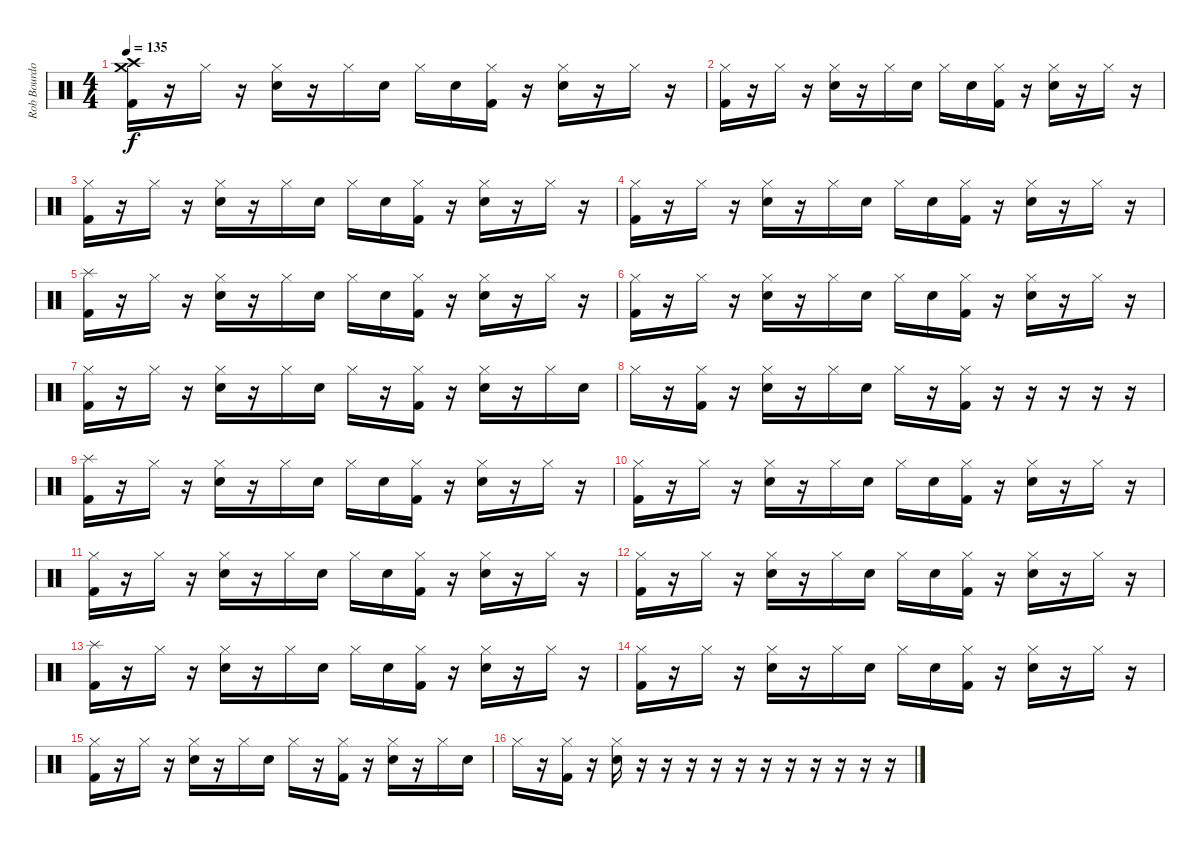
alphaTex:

\track ("Rob Bourdon (Drums)" "Rob Bourdo") {instrument percussion}
\staff {score}
\articulation defaults
\ts (4 4)
\tempo 135
\clef neutral
\ks c
("Crash high (hit)" "Crash medium (hit)" "Kick (hit) 2").16{dy f} r.16 "Hi-Hat (closed)".16 r.16 ("Hi-Hat (closed)" "Electric Snare (hit)").16 r.16 "Hi-Hat (closed)".16 "Electric Snare (hit)".16 "Hi-Hat (closed)".16 "Electric Snare (hit)".16 ("Hi-Hat (closed)" "Kick (hit) 2").16 r.16 ("Hi-Hat (closed)" "Electric Snare (hit)").16 r.16 "Hi-Hat (closed)".16 r.16 |
("Hi-Hat (closed)" "Kick (hit) 2").16 r.16 "Hi-Hat (closed)".16 r.16 ("Hi-Hat (closed)" "Electric Snare (hit)").16 r.16 "Hi-Hat (closed)".16 "Electric Snare (hit)".16 "Hi-Hat (closed)".16 "Electric Snare (hit)".16 ("Hi-Hat (closed)" "Kick (hit) 2").16 r.16 ("Hi-Hat (closed)" "Electric Snare (hit)").16 r.16 "Hi-Hat (closed)".16 r.16 |
("Hi-Hat (closed)" "Kick (hit) 2").16 r.16 "Hi-Hat (closed)".16 r.16 ("Hi-Hat (closed)" "Electric Snare (hit)").16 r.16 "Hi-Hat (closed)".16 "Electric Snare (hit)".16 "Hi-Hat (closed)".16 "Electric Snare (hit)".16 ("Hi-Hat (closed)" "Kick (hit) 2").16 r.16 ("Hi-Hat (closed)" "Electric Snare (hit)").16 r.16 "Hi-Hat (closed)".16 r.16 |
("Hi-Hat (closed)" "Kick (hit) 2").16 r.16 "Hi-Hat (closed)".16 r.16 ("Hi-Hat (closed)" "Electric Snare (hit)").16 r.16 "Hi-Hat (closed)".16 "Electric Snare (hit)".16 "Hi-Hat (closed)".16 "Electric Snare (hit)".16 ("Hi-Hat (closed)" "Kick (hit) 2").16 r.16 ("Hi-Hat (closed)" "Electric Snare (hit)").16 r.16 "Hi-Hat (closed)".16 r.16 |
("Splash (hit)" "Kick (hit) 2").16 r.16 "Hi-Hat (closed)".16 r.16 ("Hi-Hat (closed)" "Electric Snare (hit)").16 r.16 "Hi-Hat (closed)".16 "Electric Snare (hit)".16 "Hi-Hat (closed)".16 "Electric Snare (hit)".16 ("Hi-Hat (closed)" "Kick (hit) 2").16 r.16 ("Hi-Hat (closed)" "Electric Snare (hit)").16 r.16 "Hi-Hat (closed)".16 r.16 |
("Hi-Hat (closed)" "Kick (hit) 2").16 r.16 "Hi-Hat (closed)".16 r.16 ("Hi-Hat (closed)" "Electric Snare (hit)").16 r.16 "Hi-Hat (closed)".16 "Electric Snare (hit)".16 "Hi-Hat (closed)".16 "Electric Snare (hit)".16 ("Hi-Hat (closed)" "Kick (hit) 2").16 r.16 ("Hi-Hat (closed)" "Electric Snare (hit)").16 r.16 "Hi-Hat (closed)".16 r.16 |
("Hi-Hat (closed)" "Kick (hit) 2").16 r.16 "Hi-Hat (closed)".16 r.16 ("Hi-Hat (closed)" "Electric Snare (hit)").16 r.16 "Hi-Hat (closed)".16 "Electric Snare (hit)".16 "Hi-Hat (closed)".16 r.16 ("Hi-Hat (closed)" "Kick (hit) 2").16 r.16 ("Hi-Hat (closed)" "Electric Snare (hit)").16 r.16 "Hi-Hat (closed)".16 "Electric Snare (hit)".16 |
"Hi-Hat (closed)".16 r.16 ("Hi-Hat (closed)" "Kick (hit) 2").16 r.16 ("Hi-Hat (closed)" "Electric Snare (hit)").16 r.16 "Hi-Hat (closed)".16 "Electric Snare (hit)".16 "Hi-Hat (closed)".16 r.16 ("Hi-Hat (closed)" "Kick (hit) 2").16 r.16 r.16 r.16 r.16 r.16 |
("Splash (hit)" "Kick (hit) 2").16 r.16 "Hi-Hat (closed)".16 r.16 ("Hi-Hat (closed)" "Electric Snare (hit)").16 r.16 "Hi-Hat (closed)".16 "Electric Snare (hit)".16 "Hi-Hat (closed)".16 "Electric Snare (hit)".16 ("Hi-Hat (closed)" "Kick (hit) 2").16 r.16 ("Hi-Hat (closed)" "Electric Snare (hit)").16 r.16 "Hi-Hat (closed)".16 r.16 |
("Hi-Hat (closed)" "Kick (hit) 2").16 r.16 "Hi-Hat (closed)".16 r.16 ("Hi-Hat (closed)" "Electric Snare (hit)").16 r.16 "Hi-Hat (closed)".16 "Electric Snare (hit)".16 "Hi-Hat (closed)".16 "Electric Snare (hit)".16 ("Hi-Hat (closed)" "Kick (hit) 2").16 r.16 ("Hi-Hat (closed)" "Electric Snare (hit)").16 r.16 "Hi-Hat (closed)".16 r.16 |
("Hi-Hat (closed)" "Kick (hit) 2").16 r.16 "Hi-Hat (closed)".16 r.16 ("Hi-Hat (closed)" "Electric Snare (hit)").16 r.16 "Hi-Hat (closed)".16 "Electric Snare (hit)".16 "Hi-Hat (closed)".16 "Electric Snare (hit)".16 ("Hi-Hat (closed)" "Kick (hit) 2").16 r.16 ("Hi-Hat (closed)" "Electric Snare (hit)").16 r.16 "Hi-Hat (closed)".16 r.16 |
("Hi-Hat (closed)" "Kick (hit) 2").16 r.16 "Hi-Hat (closed)".16 r.16 ("Hi-Hat (closed)" "Electric Snare (hit)").16 r.16 "Hi-Hat (closed)".16 "Electric Snare (hit)".16 "Hi-Hat (closed)".16 "Electric Snare (hit)".16 ("Hi-Hat (closed)" "Kick (hit) 2").16 r.16 ("Hi-Hat (closed)" "Electric Snare (hit)").16 r.16 "Hi-Hat (closed)".16 r.16 |
("Splash (hit)" "Kick (hit) 2").16 r.16 "Hi-Hat (closed)".16 r.16 ("Hi-Hat (closed)" "Electric Snare (hit)").16 r.16 "Hi-Hat (closed)".16 "Electric Snare (hit)".16 "Hi-Hat (closed)".16 "Electric Snare (hit)".16 ("Hi-Hat (closed)" "Kick (hit) 2").16 r.16 ("Hi-Hat (closed)" "Electric Snare (hit)").16 r.16 "Hi-Hat (closed)".16 r.16 |
("Hi-Hat (closed)" "Kick (hit) 2").16 r.16 "Hi-Hat (closed)".16 r.16 ("Hi-Hat (closed)" "Electric Snare (hit)").16 r.16 "Hi-Hat (closed)".16 "Electric Snare (hit)".16 "Hi-Hat (closed)".16 "Electric Snare (hit)".16 ("Hi-Hat (closed)" "Kick (hit) 2").16 r.16 ("Hi-Hat (closed)" "Electric Snare (hit)").16 r.16 "Hi-Hat (closed)".16 r.16 |
("Hi-Hat (closed)" "Kick (hit) 2").16 r.16 "Hi-Hat (closed)".16 r.16 ("Hi-Hat (closed)" "Electric Snare (hit)").16 r.16 "Hi-Hat (closed)".16 "Electric Snare (hit)".16 "Hi-Hat (closed)".16 r.16 ("Hi-Hat (closed)" "Kick (hit) 2").16 r.16 ("Hi-Hat (closed)" "Electric Snare (hit)").16 r.16 "Hi-Hat (closed)".16 "Electric Snare (hit)".16 |
"Hi-Hat (closed)".16 r.16 ("Hi-Hat (closed)" "Kick (hit) 2").16 r.16 ("Hi-Hat (closed)" "Electric Snare (hit)").16 r.16 r.16 r.16 r.16 r.16 r.16 r.16 r.16 r.16 r.16 r.16
